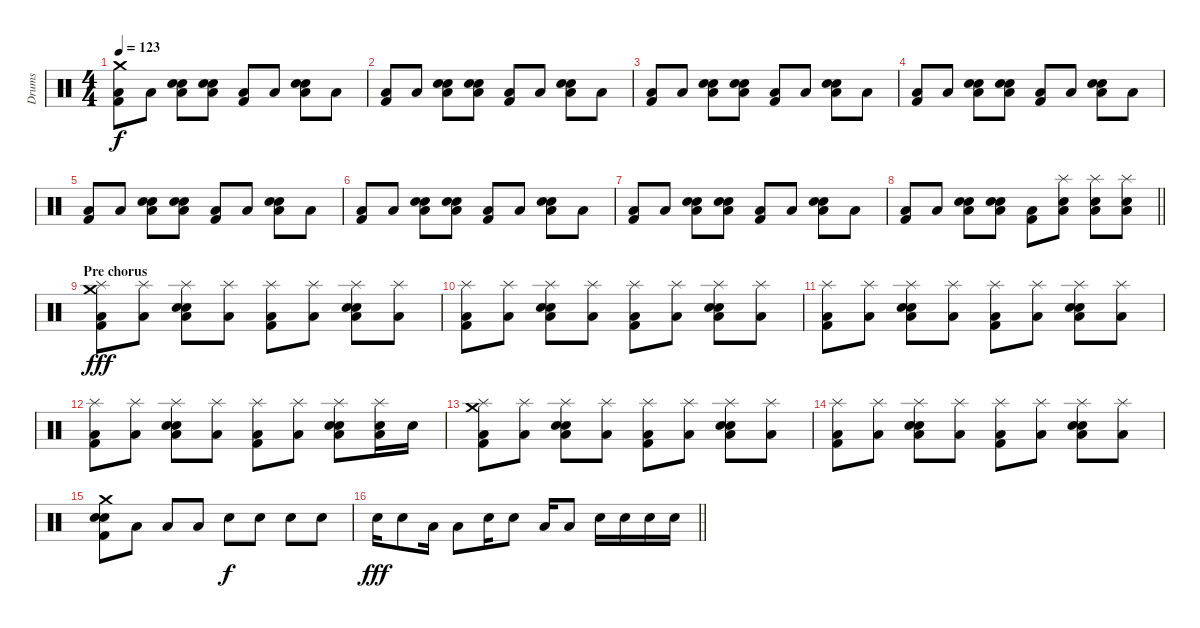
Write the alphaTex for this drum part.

\track ("Drums" "Drums") {instrument percussion}
\staff {score}
\articulation defaults
\ts (4 4)
\tempo 123
\clef neutral
\ks c
("Crash medium (hit)" "Low Floor Tom (hit)" "Kick (hit) 2").8{dy f} "Low Floor Tom (hit)".8 ("Electric Snare (hit)" "Electric Snare (hit)" "Low Floor Tom (hit)").8 ("Electric Snare (hit)" "Electric Snare (hit)" "Low Floor Tom (hit)").8 ("Low Floor Tom (hit)" "Kick (hit) 2").8 "Low Floor Tom (hit)".8 ("Electric Snare (hit)" "Electric Snare (hit)" "Low Floor Tom (hit)").8 "Low Floor Tom (hit)".8 |
("Low Floor Tom (hit)" "Kick (hit) 2").8 "Low Floor Tom (hit)".8 ("Electric Snare (hit)" "Electric Snare (hit)" "Low Floor Tom (hit)").8 ("Electric Snare (hit)" "Electric Snare (hit)" "Low Floor Tom (hit)").8 ("Low Floor Tom (hit)" "Kick (hit) 2").8 "Low Floor Tom (hit)".8 ("Electric Snare (hit)" "Electric Snare (hit)" "Low Floor Tom (hit)").8 "Low Floor Tom (hit)".8 |
("Low Floor Tom (hit)" "Kick (hit) 2").8 "Low Floor Tom (hit)".8 ("Electric Snare (hit)" "Electric Snare (hit)" "Low Floor Tom (hit)").8 ("Electric Snare (hit)" "Electric Snare (hit)" "Low Floor Tom (hit)").8 ("Low Floor Tom (hit)" "Kick (hit) 2").8 "Low Floor Tom (hit)".8 ("Electric Snare (hit)" "Electric Snare (hit)" "Low Floor Tom (hit)").8 "Low Floor Tom (hit)".8 |
("Low Floor Tom (hit)" "Kick (hit) 2").8 "Low Floor Tom (hit)".8 ("Electric Snare (hit)" "Electric Snare (hit)" "Low Floor Tom (hit)").8 ("Electric Snare (hit)" "Electric Snare (hit)" "Low Floor Tom (hit)").8 ("Low Floor Tom (hit)" "Kick (hit) 2").8 "Low Floor Tom (hit)".8 ("Electric Snare (hit)" "Electric Snare (hit)" "Low Floor Tom (hit)").8 "Low Floor Tom (hit)".8 |
("Low Floor Tom (hit)" "Kick (hit) 2").8 "Low Floor Tom (hit)".8 ("Electric Snare (hit)" "Electric Snare (hit)" "Low Floor Tom (hit)").8 ("Electric Snare (hit)" "Electric Snare (hit)" "Low Floor Tom (hit)").8 ("Low Floor Tom (hit)" "Kick (hit) 2").8 "Low Floor Tom (hit)".8 ("Electric Snare (hit)" "Electric Snare (hit)" "Low Floor Tom (hit)").8 "Low Floor Tom (hit)".8 |
("Low Floor Tom (hit)" "Kick (hit) 2").8 "Low Floor Tom (hit)".8 ("Electric Snare (hit)" "Electric Snare (hit)" "Low Floor Tom (hit)").8 ("Electric Snare (hit)" "Electric Snare (hit)" "Low Floor Tom (hit)").8 ("Low Floor Tom (hit)" "Kick (hit) 2").8 "Low Floor Tom (hit)".8 ("Electric Snare (hit)" "Electric Snare (hit)" "Low Floor Tom (hit)").8 "Low Floor Tom (hit)".8 |
("Low Floor Tom (hit)" "Kick (hit) 2").8 "Low Floor Tom (hit)".8 ("Electric Snare (hit)" "Electric Snare (hit)" "Low Floor Tom (hit)").8 ("Electric Snare (hit)" "Electric Snare (hit)" "Low Floor Tom (hit)").8 ("Low Floor Tom (hit)" "Kick (hit) 2").8 "Low Floor Tom (hit)".8 ("Electric Snare (hit)" "Electric Snare (hit)" "Low Floor Tom (hit)").8 "Low Floor Tom (hit)".8 |
\barLineRight lightlight
("Low Floor Tom (hit)" "Kick (hit) 2").8 "Low Floor Tom (hit)".8 ("Electric Snare (hit)" "Electric Snare (hit)" "Low Floor Tom (hit)").8 ("Electric Snare (hit)" "Electric Snare (hit)" "Low Floor Tom (hit)").8 ("Low Floor Tom (hit)" "Kick (hit) 2").8 ("Splash (hit)" "Electric Snare (hit)" "Low Floor Tom (hit)").8 ("Splash (hit)" "Electric Snare (hit)" "Low Floor Tom (hit)").8 ("Splash (hit)" "Electric Snare (hit)" "Low Floor Tom (hit)").8 |
\section ("" "Pre chorus")
("Crash medium (hit)" "Splash (hit)" "Low Floor Tom (hit)" "Kick (hit) 2").8{dy fff} ("Splash (hit)" "Low Floor Tom (hit)").8 ("Electric Snare (hit)" "Electric Snare (hit)" "Splash (hit)" "Low Floor Tom (hit)").8 ("Splash (hit)" "Low Floor Tom (hit)").8 ("Splash (hit)" "Low Floor Tom (hit)" "Kick (hit) 2").8 ("Splash (hit)" "Low Floor Tom (hit)").8 ("Electric Snare (hit)" "Electric Snare (hit)" "Splash (hit)" "Low Floor Tom (hit)").8 ("Splash (hit)" "Low Floor Tom (hit)").8 |
("Splash (hit)" "Low Floor Tom (hit)" "Kick (hit) 2").8 ("Splash (hit)" "Low Floor Tom (hit)").8 ("Electric Snare (hit)" "Electric Snare (hit)" "Splash (hit)" "Low Floor Tom (hit)").8 ("Splash (hit)" "Low Floor Tom (hit)").8 ("Splash (hit)" "Low Floor Tom (hit)" "Kick (hit) 2").8 ("Splash (hit)" "Low Floor Tom (hit)").8 ("Electric Snare (hit)" "Electric Snare (hit)" "Splash (hit)" "Low Floor Tom (hit)").8 ("Splash (hit)" "Low Floor Tom (hit)").8 |
("Splash (hit)" "Low Floor Tom (hit)" "Kick (hit) 2").8 ("Splash (hit)" "Low Floor Tom (hit)").8 ("Electric Snare (hit)" "Electric Snare (hit)" "Splash (hit)" "Low Floor Tom (hit)").8 ("Splash (hit)" "Low Floor Tom (hit)").8 ("Splash (hit)" "Low Floor Tom (hit)" "Kick (hit) 2").8 ("Splash (hit)" "Low Floor Tom (hit)").8 ("Electric Snare (hit)" "Electric Snare (hit)" "Splash (hit)" "Low Floor Tom (hit)").8 ("Splash (hit)" "Low Floor Tom (hit)").8 |
("Splash (hit)" "Low Floor Tom (hit)" "Kick (hit) 2").8 ("Splash (hit)" "Low Floor Tom (hit)").8 ("Electric Snare (hit)" "Electric Snare (hit)" "Splash (hit)" "Low Floor Tom (hit)").8 ("Splash (hit)" "Low Floor Tom (hit)").8 ("Splash (hit)" "Low Floor Tom (hit)" "Kick (hit) 2").8 ("Splash (hit)" "Low Floor Tom (hit)").8 ("Electric Snare (hit)" "Electric Snare (hit)" "Splash (hit)" "Low Floor Tom (hit)").8 ("Electric Snare (hit)" "Splash (hit)" "Low Floor Tom (hit)").16 "Electric Snare (hit)".16 |
("Crash medium (hit)" "Splash (hit)" "Low Floor Tom (hit)" "Kick (hit) 2").8 ("Splash (hit)" "Low Floor Tom (hit)").8 ("Electric Snare (hit)" "Electric Snare (hit)" "Splash (hit)" "Low Floor Tom (hit)").8 ("Splash (hit)" "Low Floor Tom (hit)").8 ("Splash (hit)" "Low Floor Tom (hit)" "Kick (hit) 2").8 ("Splash (hit)" "Low Floor Tom (hit)").8 ("Electric Snare (hit)" "Electric Snare (hit)" "Splash (hit)" "Low Floor Tom (hit)").8 ("Splash (hit)" "Low Floor Tom (hit)").8 |
("Splash (hit)" "Low Floor Tom (hit)" "Kick (hit) 2").8 ("Splash (hit)" "Low Floor Tom (hit)").8 ("Electric Snare (hit)" "Electric Snare (hit)" "Splash (hit)" "Low Floor Tom (hit)").8 ("Splash (hit)" "Low Floor Tom (hit)").8 ("Splash (hit)" "Low Floor Tom (hit)" "Kick (hit) 2").8 ("Splash (hit)" "Low Floor Tom (hit)").8 ("Electric Snare (hit)" "Electric Snare (hit)" "Splash (hit)" "Low Floor Tom (hit)").8 ("Splash (hit)" "Low Floor Tom (hit)").8 |
("Crash medium (hit)" "Electric Snare (hit)" "Electric Snare (hit)" "Kick (hit) 2").8 "Low Floor Tom (hit)".8 "Low Floor Tom (hit)".8 "Low Floor Tom (hit)".8 "Electric Snare (hit)".8{dy f} "Electric Snare (hit)".8 "Electric Snare (hit)".8 "Electric Snare (hit)".8 |
\barLineRight lightlight "Electric Snare (hit)".16{dy fff} "Electric Snare (hit)".8 "Low Floor Tom (hit)".16 "Low Floor Tom (hit)".8 "Electric Snare (hit)".16 "Electric Snare (hit)".8 "Low Floor Tom (hit)".16 "Low Floor Tom (hit)".8 "Electric Snare (hit)".16 "Electric Snare (hit)".16 "Electric Snare (hit)".16 "Electric Snare (hit)".16
